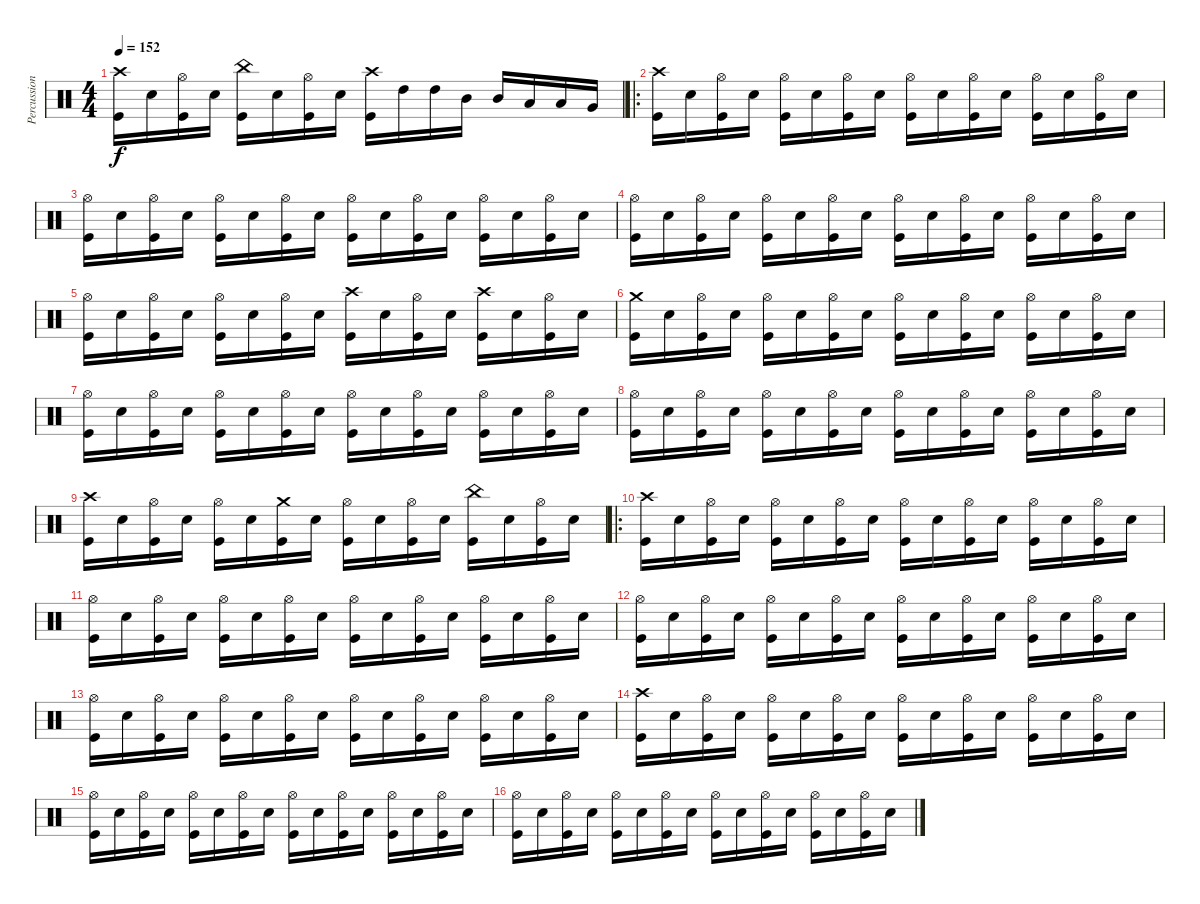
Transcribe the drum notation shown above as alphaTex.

\track ("Percussion" "Percussion") {instrument percussion}
\staff {score}
\articulation defaults
\ts (4 4)
\tempo 152
\clef neutral
\ks c
("Crash high (hit)" "Kick (hit)").16{dy f} "Snare (hit) 2".16 ("Hi-Hat (open)" "Kick (hit)").16 "Snare (hit) 2".16 ("China (hit)" "Kick (hit)").16 "Snare (hit) 2".16 ("Hi-Hat (open)" "Kick (hit)").16 "Snare (hit) 2".16 ("Crash high (hit)" "Kick (hit)").16 "High Tom (hit)".16 "High Tom (hit)".16 "Mid Tom (hit)".16 "Mid Tom (hit)".16 "Low Tom (hit)".16 "Low Tom (hit)".16 "Very Low Tom (hit)".16 |
\ro
("Crash high (hit)" "Kick (hit)").16 "Snare (hit) 2".16 ("Hi-Hat (open)" "Kick (hit)").16 "Snare (hit) 2".16 ("Hi-Hat (open)" "Kick (hit)").16 "Snare (hit) 2".16 ("Hi-Hat (open)" "Kick (hit)").16 "Snare (hit) 2".16 ("Hi-Hat (open)" "Kick (hit)").16 "Snare (hit) 2".16 ("Hi-Hat (open)" "Kick (hit)").16 "Snare (hit) 2".16 ("Hi-Hat (open)" "Kick (hit)").16 "Snare (hit) 2".16 ("Hi-Hat (open)" "Kick (hit)").16 "Snare (hit) 2".16 |
("Hi-Hat (open)" "Kick (hit)").16 "Snare (hit) 2".16 ("Hi-Hat (open)" "Kick (hit)").16 "Snare (hit) 2".16 ("Hi-Hat (open)" "Kick (hit)").16 "Snare (hit) 2".16 ("Hi-Hat (open)" "Kick (hit)").16 "Snare (hit) 2".16 ("Hi-Hat (open)" "Kick (hit)").16 "Snare (hit) 2".16 ("Hi-Hat (open)" "Kick (hit)").16 "Snare (hit) 2".16 ("Hi-Hat (open)" "Kick (hit)").16 "Snare (hit) 2".16 ("Hi-Hat (open)" "Kick (hit)").16 "Snare (hit) 2".16 |
("Hi-Hat (open)" "Kick (hit)").16 "Snare (hit) 2".16 ("Hi-Hat (open)" "Kick (hit)").16 "Snare (hit) 2".16 ("Hi-Hat (open)" "Kick (hit)").16 "Snare (hit) 2".16 ("Hi-Hat (open)" "Kick (hit)").16 "Snare (hit) 2".16 ("Hi-Hat (open)" "Kick (hit)").16 "Snare (hit) 2".16 ("Hi-Hat (open)" "Kick (hit)").16 "Snare (hit) 2".16 ("Hi-Hat (open)" "Kick (hit)").16 "Snare (hit) 2".16 ("Hi-Hat (open)" "Kick (hit)").16 "Snare (hit) 2".16 |
("Hi-Hat (open)" "Kick (hit)").16 "Snare (hit) 2".16 ("Hi-Hat (open)" "Kick (hit)").16 "Snare (hit) 2".16 ("Hi-Hat (open)" "Kick (hit)").16 "Snare (hit) 2".16 ("Hi-Hat (open)" "Kick (hit)").16 "Snare (hit) 2".16 ("Crash high (hit)" "Kick (hit)").16 "Snare (hit) 2".16 ("Hi-Hat (open)" "Kick (hit)").16 "Snare (hit) 2".16 ("Crash high (hit)" "Kick (hit)").16 "Snare (hit) 2".16 ("Hi-Hat (open)" "Kick (hit)").16 "Snare (hit) 2".16 |
("Crash medium (hit)" "Kick (hit)").16 "Snare (hit) 2".16 ("Hi-Hat (open)" "Kick (hit)").16 "Snare (hit) 2".16 ("Hi-Hat (open)" "Kick (hit)").16 "Snare (hit) 2".16 ("Hi-Hat (open)" "Kick (hit)").16 "Snare (hit) 2".16 ("Hi-Hat (open)" "Kick (hit)").16 "Snare (hit) 2".16 ("Hi-Hat (open)" "Kick (hit)").16 "Snare (hit) 2".16 ("Hi-Hat (open)" "Kick (hit)").16 "Snare (hit) 2".16 ("Hi-Hat (open)" "Kick (hit)").16 "Snare (hit) 2".16 |
("Hi-Hat (open)" "Kick (hit)").16 "Snare (hit) 2".16 ("Hi-Hat (open)" "Kick (hit)").16 "Snare (hit) 2".16 ("Hi-Hat (open)" "Kick (hit)").16 "Snare (hit) 2".16 ("Hi-Hat (open)" "Kick (hit)").16 "Snare (hit) 2".16 ("Hi-Hat (open)" "Kick (hit)").16 "Snare (hit) 2".16 ("Hi-Hat (open)" "Kick (hit)").16 "Snare (hit) 2".16 ("Hi-Hat (open)" "Kick (hit)").16 "Snare (hit) 2".16 ("Hi-Hat (open)" "Kick (hit)").16 "Snare (hit) 2".16 |
("Hi-Hat (open)" "Kick (hit)").16 "Snare (hit) 2".16 ("Hi-Hat (open)" "Kick (hit)").16 "Snare (hit) 2".16 ("Hi-Hat (open)" "Kick (hit)").16 "Snare (hit) 2".16 ("Hi-Hat (open)" "Kick (hit)").16 "Snare (hit) 2".16 ("Hi-Hat (open)" "Kick (hit)").16 "Snare (hit) 2".16 ("Hi-Hat (open)" "Kick (hit)").16 "Snare (hit) 2".16 ("Hi-Hat (open)" "Kick (hit)").16 "Snare (hit) 2".16 ("Hi-Hat (open)" "Kick (hit)").16 "Snare (hit) 2".16 |
("Crash high (hit)" "Kick (hit)").16 "Snare (hit) 2".16 ("Hi-Hat (open)" "Kick (hit)").16 "Snare (hit) 2".16 ("Hi-Hat (open)" "Kick (hit)").16 "Snare (hit) 2".16 ("Crash medium (hit)" "Kick (hit)").16 "Snare (hit) 2".16 ("Hi-Hat (open)" "Kick (hit)").16 "Snare (hit) 2".16 ("Hi-Hat (open)" "Kick (hit)").16 "Snare (hit) 2".16 ("China (hit)" "Kick (hit)").16 "Snare (hit) 2".16 ("Hi-Hat (open)" "Kick (hit)").16 "Snare (hit) 2".16 |
\ro
("Crash high (hit)" "Kick (hit)").16 "Snare (hit) 2".16 ("Hi-Hat (open)" "Kick (hit)").16 "Snare (hit) 2".16 ("Hi-Hat (open)" "Kick (hit)").16 "Snare (hit) 2".16 ("Hi-Hat (open)" "Kick (hit)").16 "Snare (hit) 2".16 ("Hi-Hat (open)" "Kick (hit)").16 "Snare (hit) 2".16 ("Hi-Hat (open)" "Kick (hit)").16 "Snare (hit) 2".16 ("Hi-Hat (open)" "Kick (hit)").16 "Snare (hit) 2".16 ("Hi-Hat (open)" "Kick (hit)").16 "Snare (hit) 2".16 |
("Hi-Hat (open)" "Kick (hit)").16 "Snare (hit) 2".16 ("Hi-Hat (open)" "Kick (hit)").16 "Snare (hit) 2".16 ("Hi-Hat (open)" "Kick (hit)").16 "Snare (hit) 2".16 ("Hi-Hat (open)" "Kick (hit)").16 "Snare (hit) 2".16 ("Hi-Hat (open)" "Kick (hit)").16 "Snare (hit) 2".16 ("Hi-Hat (open)" "Kick (hit)").16 "Snare (hit) 2".16 ("Hi-Hat (open)" "Kick (hit)").16 "Snare (hit) 2".16 ("Hi-Hat (open)" "Kick (hit)").16 "Snare (hit) 2".16 |
("Hi-Hat (open)" "Kick (hit)").16 "Snare (hit) 2".16 ("Hi-Hat (open)" "Kick (hit)").16 "Snare (hit) 2".16 ("Hi-Hat (open)" "Kick (hit)").16 "Snare (hit) 2".16 ("Hi-Hat (open)" "Kick (hit)").16 "Snare (hit) 2".16 ("Hi-Hat (open)" "Kick (hit)").16 "Snare (hit) 2".16 ("Hi-Hat (open)" "Kick (hit)").16 "Snare (hit) 2".16 ("Hi-Hat (open)" "Kick (hit)").16 "Snare (hit) 2".16 ("Hi-Hat (open)" "Kick (hit)").16 "Snare (hit) 2".16 |
("Hi-Hat (open)" "Kick (hit)").16 "Snare (hit) 2".16 ("Hi-Hat (open)" "Kick (hit)").16 "Snare (hit) 2".16 ("Hi-Hat (open)" "Kick (hit)").16 "Snare (hit) 2".16 ("Hi-Hat (open)" "Kick (hit)").16 "Snare (hit) 2".16 ("Hi-Hat (open)" "Kick (hit)").16 "Snare (hit) 2".16 ("Hi-Hat (open)" "Kick (hit)").16 "Snare (hit) 2".16 ("Hi-Hat (open)" "Kick (hit)").16 "Snare (hit) 2".16 ("Hi-Hat (open)" "Kick (hit)").16 "Snare (hit) 2".16 |
("Crash high (hit)" "Kick (hit)").16 "Snare (hit) 2".16 ("Hi-Hat (open)" "Kick (hit)").16 "Snare (hit) 2".16 ("Hi-Hat (open)" "Kick (hit)").16 "Snare (hit) 2".16 ("Hi-Hat (open)" "Kick (hit)").16 "Snare (hit) 2".16 ("Hi-Hat (open)" "Kick (hit)").16 "Snare (hit) 2".16 ("Hi-Hat (open)" "Kick (hit)").16 "Snare (hit) 2".16 ("Hi-Hat (open)" "Kick (hit)").16 "Snare (hit) 2".16 ("Hi-Hat (open)" "Kick (hit)").16 "Snare (hit) 2".16 |
("Hi-Hat (open)" "Kick (hit)").16 "Snare (hit) 2".16 ("Hi-Hat (open)" "Kick (hit)").16 "Snare (hit) 2".16 ("Hi-Hat (open)" "Kick (hit)").16 "Snare (hit) 2".16 ("Hi-Hat (open)" "Kick (hit)").16 "Snare (hit) 2".16 ("Hi-Hat (open)" "Kick (hit)").16 "Snare (hit) 2".16 ("Hi-Hat (open)" "Kick (hit)").16 "Snare (hit) 2".16 ("Hi-Hat (open)" "Kick (hit)").16 "Snare (hit) 2".16 ("Hi-Hat (open)" "Kick (hit)").16 "Snare (hit) 2".16 |
("Hi-Hat (open)" "Kick (hit)").16 "Snare (hit) 2".16 ("Hi-Hat (open)" "Kick (hit)").16 "Snare (hit) 2".16 ("Hi-Hat (open)" "Kick (hit)").16 "Snare (hit) 2".16 ("Hi-Hat (open)" "Kick (hit)").16 "Snare (hit) 2".16 ("Hi-Hat (open)" "Kick (hit)").16 "Snare (hit) 2".16 ("Hi-Hat (open)" "Kick (hit)").16 "Snare (hit) 2".16 ("Hi-Hat (open)" "Kick (hit)").16 "Snare (hit) 2".16 ("Hi-Hat (open)" "Kick (hit)").16 "Snare (hit) 2".16
